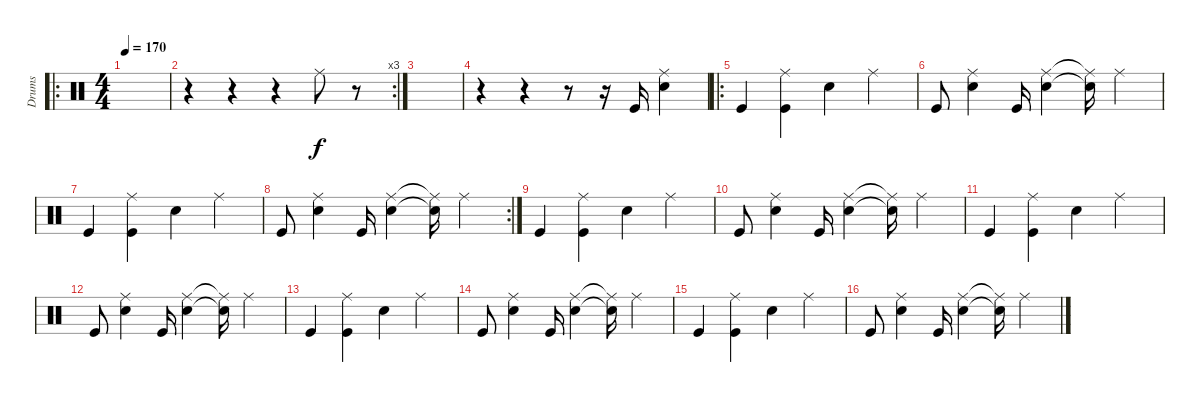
\track ("Drums" "Drums") {instrument percussion}
\staff {score}
\articulation defaults
\ro
\ts (4 4)
\tempo 170
\clef neutral
\ks c
|
\rc 3
r.4 r.4 r.4 "Ride (middle)".8 r.8 |
|
r.4 r.4 r.8 r.16 "Kick (hit)".16 ("Ride (middle)" "Electric Snare (hit)").4 |
\ro "Kick (hit)".4
("Ride (middle)" "Kick (hit)").4 "Electric Snare (hit)".4 "Ride (middle)".4 |
"Kick (hit)".8 ("Ride (middle)" "Electric Snare (hit)").4 "Kick (hit)".16 ("Ride (middle)" "Electric Snare (hit)").4 ("Ride (middle)"{t} "Snare (hit)"{t}).16 "Ride (middle)".4 |
"Kick (hit)".4 ("Ride (middle)" "Kick (hit)").4 "Electric Snare (hit)".4 "Ride (middle)".4 |
\rc 2 "Kick (hit)".8
("Ride (middle)" "Electric Snare (hit)").4 "Kick (hit)".16 ("Ride (middle)" "Electric Snare (hit)").4 ("Ride (middle)"{t} "Snare (hit)"{t}).16 "Ride (middle)".4 |
"Kick (hit)".4 ("Ride (middle)" "Kick (hit)").4 "Electric Snare (hit)".4 "Ride (middle)".4 |
"Kick (hit)".8 ("Ride (middle)" "Electric Snare (hit)").4 "Kick (hit)".16 ("Ride (middle)" "Electric Snare (hit)").4 ("Ride (middle)"{t} "Snare (hit)"{t}).16 "Ride (middle)".4 |
"Kick (hit)".4 ("Ride (middle)" "Kick (hit)").4 "Electric Snare (hit)".4 "Ride (middle)".4 |
"Kick (hit)".8 ("Ride (middle)" "Electric Snare (hit)").4 "Kick (hit)".16 ("Ride (middle)" "Electric Snare (hit)").4 ("Ride (middle)"{t} "Snare (hit)"{t}).16 "Ride (middle)".4 |
"Kick (hit)".4 ("Ride (middle)" "Kick (hit)").4 "Electric Snare (hit)".4 "Ride (middle)".4 |
"Kick (hit)".8 ("Ride (middle)" "Electric Snare (hit)").4 "Kick (hit)".16 ("Ride (middle)" "Electric Snare (hit)").4 ("Ride (middle)"{t} "Snare (hit)"{t}).16 "Ride (middle)".4 |
"Kick (hit)".4 ("Ride (middle)" "Kick (hit)").4 "Electric Snare (hit)".4 "Ride (middle)".4 |
"Kick (hit)".8 ("Ride (middle)" "Electric Snare (hit)").4 "Kick (hit)".16 ("Ride (middle)" "Electric Snare (hit)").4 ("Ride (middle)"{t} "Snare (hit)"{t}).16 "Ride (middle)".4
